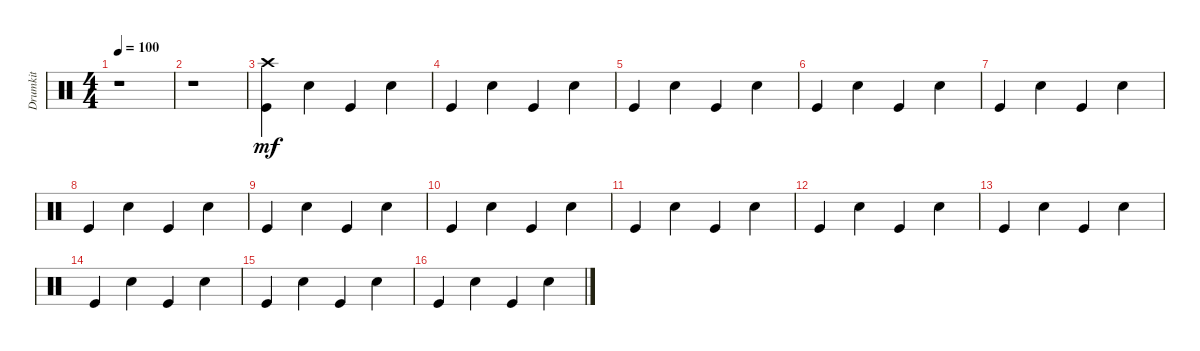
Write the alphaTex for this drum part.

\track ("Drumkit" "Drumkit") {instrument percussion}
\staff {score}
\articulation defaults
\ts (4 4)
\tempo 100
\clef neutral
\ks aminor
r.1{dy mf} |
r.1 |
("Kick (hit)" "Crash high (hit)").4 "Electric Snare (hit)".4 "Kick (hit)".4 "Electric Snare (hit)".4 |
"Kick (hit)".4 "Electric Snare (hit)".4 "Kick (hit)".4 "Electric Snare (hit)".4 |
"Kick (hit)".4 "Electric Snare (hit)".4 "Kick (hit)".4 "Electric Snare (hit)".4 |
"Kick (hit)".4 "Electric Snare (hit)".4 "Kick (hit)".4 "Electric Snare (hit)".4 |
"Kick (hit)".4 "Electric Snare (hit)".4 "Kick (hit)".4 "Electric Snare (hit)".4 |
"Kick (hit)".4 "Electric Snare (hit)".4 "Kick (hit)".4 "Electric Snare (hit)".4 |
"Kick (hit)".4 "Electric Snare (hit)".4 "Kick (hit)".4 "Electric Snare (hit)".4 |
"Kick (hit)".4 "Electric Snare (hit)".4 "Kick (hit)".4 "Electric Snare (hit)".4 |
"Kick (hit)".4 "Electric Snare (hit)".4 "Kick (hit)".4 "Electric Snare (hit)".4 |
"Kick (hit)".4 "Electric Snare (hit)".4 "Kick (hit)".4 "Electric Snare (hit)".4 |
"Kick (hit)".4 "Electric Snare (hit)".4 "Kick (hit)".4 "Electric Snare (hit)".4 |
"Kick (hit)".4 "Electric Snare (hit)".4 "Kick (hit)".4 "Electric Snare (hit)".4 |
"Kick (hit)".4 "Electric Snare (hit)".4 "Kick (hit)".4 "Electric Snare (hit)".4 |
"Kick (hit)".4 "Electric Snare (hit)".4 "Kick (hit)".4 "Electric Snare (hit)".4
